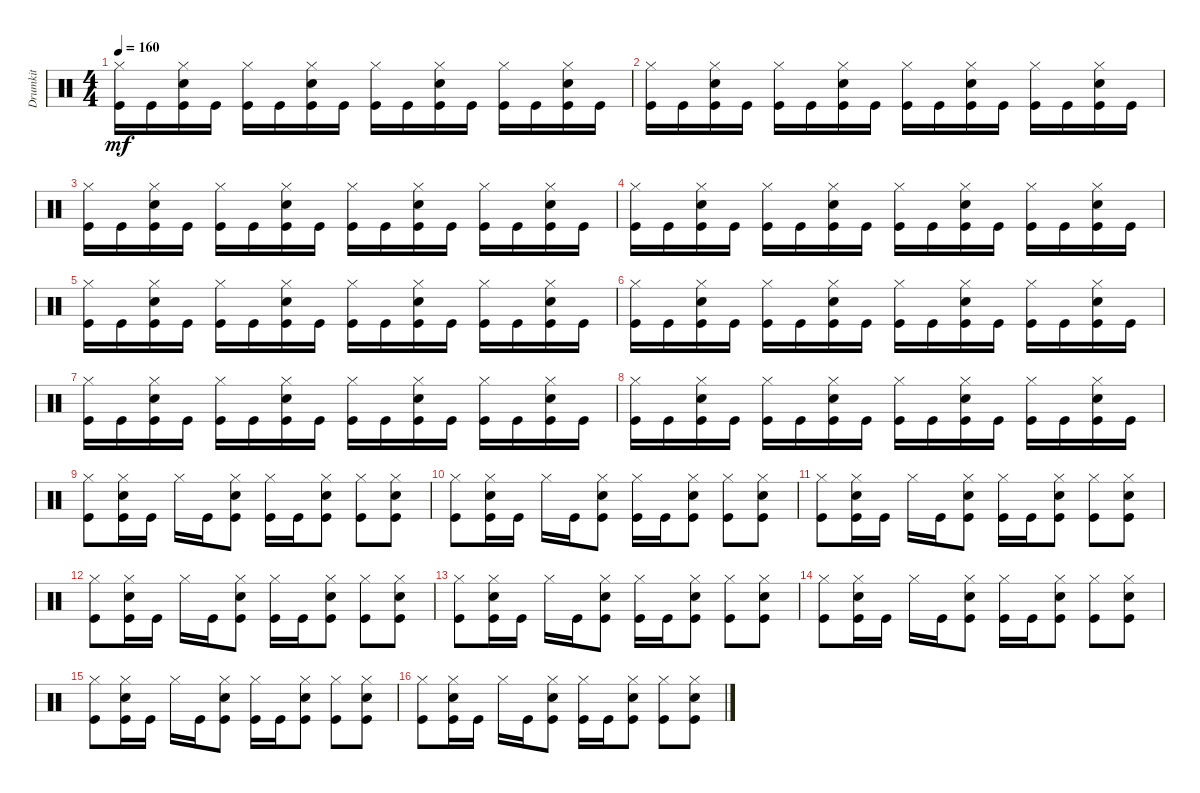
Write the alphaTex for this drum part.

\track ("Drumkit" "Drumkit") {instrument percussion}
\staff {score}
\articulation defaults
\ts (4 4)
\tempo 160
\clef neutral
\ks c
("Kick (hit)" "Hi-Hat (closed)").16{dy mf} "Kick (hit)".16 ("Kick (hit)" "Snare (hit) 2" "Hi-Hat (closed)").16 "Kick (hit)".16 ("Kick (hit)" "Hi-Hat (closed)").16 "Kick (hit)".16 ("Kick (hit)" "Snare (hit) 2" "Hi-Hat (closed)").16 "Kick (hit)".16 ("Kick (hit)" "Hi-Hat (closed)").16 "Kick (hit)".16 ("Kick (hit)" "Snare (hit) 2" "Hi-Hat (closed)").16 "Kick (hit)".16 ("Kick (hit)" "Hi-Hat (closed)").16 "Kick (hit)".16 ("Kick (hit)" "Snare (hit) 2" "Hi-Hat (closed)").16 "Kick (hit)".16 |
("Kick (hit)" "Hi-Hat (closed)").16 "Kick (hit)".16 ("Kick (hit)" "Snare (hit) 2" "Hi-Hat (closed)").16 "Kick (hit)".16 ("Kick (hit)" "Hi-Hat (closed)").16 "Kick (hit)".16 ("Kick (hit)" "Snare (hit) 2" "Hi-Hat (closed)").16 "Kick (hit)".16 ("Kick (hit)" "Hi-Hat (closed)").16 "Kick (hit)".16 ("Kick (hit)" "Snare (hit) 2" "Hi-Hat (closed)").16 "Kick (hit)".16 ("Kick (hit)" "Hi-Hat (closed)").16 "Kick (hit)".16 ("Kick (hit)" "Snare (hit) 2" "Hi-Hat (closed)").16 "Kick (hit)".16 |
("Kick (hit)" "Hi-Hat (closed)").16 "Kick (hit)".16 ("Kick (hit)" "Snare (hit) 2" "Hi-Hat (closed)").16 "Kick (hit)".16 ("Kick (hit)" "Hi-Hat (closed)").16 "Kick (hit)".16 ("Kick (hit)" "Snare (hit) 2" "Hi-Hat (closed)").16 "Kick (hit)".16 ("Kick (hit)" "Hi-Hat (closed)").16 "Kick (hit)".16 ("Kick (hit)" "Snare (hit) 2" "Hi-Hat (closed)").16 "Kick (hit)".16 ("Kick (hit)" "Hi-Hat (closed)").16 "Kick (hit)".16 ("Kick (hit)" "Snare (hit) 2" "Hi-Hat (closed)").16 "Kick (hit)".16 |
("Kick (hit)" "Hi-Hat (closed)").16 "Kick (hit)".16 ("Kick (hit)" "Snare (hit) 2" "Hi-Hat (closed)").16 "Kick (hit)".16 ("Kick (hit)" "Hi-Hat (closed)").16 "Kick (hit)".16 ("Kick (hit)" "Snare (hit) 2" "Hi-Hat (closed)").16 "Kick (hit)".16 ("Kick (hit)" "Hi-Hat (closed)").16 "Kick (hit)".16 ("Kick (hit)" "Snare (hit) 2" "Hi-Hat (closed)").16 "Kick (hit)".16 ("Kick (hit)" "Hi-Hat (closed)").16 "Kick (hit)".16 ("Kick (hit)" "Snare (hit) 2" "Hi-Hat (closed)").16 "Kick (hit)".16 |
("Kick (hit)" "Hi-Hat (closed)").16 "Kick (hit)".16 ("Kick (hit)" "Snare (hit) 2" "Hi-Hat (closed)").16 "Kick (hit)".16 ("Kick (hit)" "Hi-Hat (closed)").16 "Kick (hit)".16 ("Kick (hit)" "Snare (hit) 2" "Hi-Hat (closed)").16 "Kick (hit)".16 ("Kick (hit)" "Hi-Hat (closed)").16 "Kick (hit)".16 ("Kick (hit)" "Snare (hit) 2" "Hi-Hat (closed)").16 "Kick (hit)".16 ("Kick (hit)" "Hi-Hat (closed)").16 "Kick (hit)".16 ("Kick (hit)" "Snare (hit) 2" "Hi-Hat (closed)").16 "Kick (hit)".16 |
("Kick (hit)" "Hi-Hat (closed)").16 "Kick (hit)".16 ("Kick (hit)" "Snare (hit) 2" "Hi-Hat (closed)").16 "Kick (hit)".16 ("Kick (hit)" "Hi-Hat (closed)").16 "Kick (hit)".16 ("Kick (hit)" "Snare (hit) 2" "Hi-Hat (closed)").16 "Kick (hit)".16 ("Kick (hit)" "Hi-Hat (closed)").16 "Kick (hit)".16 ("Kick (hit)" "Snare (hit) 2" "Hi-Hat (closed)").16 "Kick (hit)".16 ("Kick (hit)" "Hi-Hat (closed)").16 "Kick (hit)".16 ("Kick (hit)" "Snare (hit) 2" "Hi-Hat (closed)").16 "Kick (hit)".16 |
("Kick (hit)" "Hi-Hat (closed)").16 "Kick (hit)".16 ("Kick (hit)" "Snare (hit) 2" "Hi-Hat (closed)").16 "Kick (hit)".16 ("Kick (hit)" "Hi-Hat (closed)").16 "Kick (hit)".16 ("Kick (hit)" "Snare (hit) 2" "Hi-Hat (closed)").16 "Kick (hit)".16 ("Kick (hit)" "Hi-Hat (closed)").16 "Kick (hit)".16 ("Kick (hit)" "Snare (hit) 2" "Hi-Hat (closed)").16 "Kick (hit)".16 ("Kick (hit)" "Hi-Hat (closed)").16 "Kick (hit)".16 ("Kick (hit)" "Snare (hit) 2" "Hi-Hat (closed)").16 "Kick (hit)".16 |
("Kick (hit)" "Hi-Hat (closed)").16 "Kick (hit)".16 ("Kick (hit)" "Snare (hit) 2" "Hi-Hat (closed)").16 "Kick (hit)".16 ("Kick (hit)" "Hi-Hat (closed)").16 "Kick (hit)".16 ("Kick (hit)" "Snare (hit) 2" "Hi-Hat (closed)").16 "Kick (hit)".16 ("Kick (hit)" "Hi-Hat (closed)").16 "Kick (hit)".16 ("Kick (hit)" "Snare (hit) 2" "Hi-Hat (closed)").16 "Kick (hit)".16 ("Kick (hit)" "Hi-Hat (closed)").16 "Kick (hit)".16 ("Kick (hit)" "Snare (hit) 2" "Hi-Hat (closed)").16 "Kick (hit)".16 |
("Kick (hit)" "Hi-Hat (closed)").8 ("Kick (hit)" "Snare (hit) 2" "Hi-Hat (closed)").16 "Kick (hit)".16 "Hi-Hat (closed)".16 "Kick (hit)".16 ("Kick (hit)" "Snare (hit) 2" "Hi-Hat (closed)").8 ("Kick (hit)" "Hi-Hat (closed)").16 "Kick (hit)".16 ("Kick (hit)" "Snare (hit) 2" "Hi-Hat (closed)").8 ("Kick (hit)" "Hi-Hat (closed)").8 ("Kick (hit)" "Snare (hit) 2" "Hi-Hat (closed)").8 |
("Kick (hit)" "Hi-Hat (closed)").8 ("Kick (hit)" "Snare (hit) 2" "Hi-Hat (closed)").16 "Kick (hit)".16 "Hi-Hat (closed)".16 "Kick (hit)".16 ("Kick (hit)" "Snare (hit) 2" "Hi-Hat (closed)").8 ("Kick (hit)" "Hi-Hat (closed)").16 "Kick (hit)".16 ("Kick (hit)" "Snare (hit) 2" "Hi-Hat (closed)").8 ("Kick (hit)" "Hi-Hat (closed)").8 ("Kick (hit)" "Snare (hit) 2" "Hi-Hat (closed)").8 |
("Kick (hit)" "Hi-Hat (closed)").8 ("Kick (hit)" "Snare (hit) 2" "Hi-Hat (closed)").16 "Kick (hit)".16 "Hi-Hat (closed)".16 "Kick (hit)".16 ("Kick (hit)" "Snare (hit) 2" "Hi-Hat (closed)").8 ("Kick (hit)" "Hi-Hat (closed)").16 "Kick (hit)".16 ("Kick (hit)" "Snare (hit) 2" "Hi-Hat (closed)").8 ("Kick (hit)" "Hi-Hat (closed)").8 ("Kick (hit)" "Snare (hit) 2" "Hi-Hat (closed)").8 |
("Kick (hit)" "Hi-Hat (closed)").8 ("Kick (hit)" "Snare (hit) 2" "Hi-Hat (closed)").16 "Kick (hit)".16 "Hi-Hat (closed)".16 "Kick (hit)".16 ("Kick (hit)" "Snare (hit) 2" "Hi-Hat (closed)").8 ("Kick (hit)" "Hi-Hat (closed)").16 "Kick (hit)".16 ("Kick (hit)" "Snare (hit) 2" "Hi-Hat (closed)").8 ("Kick (hit)" "Hi-Hat (closed)").8 ("Kick (hit)" "Snare (hit) 2" "Hi-Hat (closed)").8 |
("Kick (hit)" "Hi-Hat (closed)").8 ("Kick (hit)" "Snare (hit) 2" "Hi-Hat (closed)").16 "Kick (hit)".16 "Hi-Hat (closed)".16 "Kick (hit)".16 ("Kick (hit)" "Snare (hit) 2" "Hi-Hat (closed)").8 ("Kick (hit)" "Hi-Hat (closed)").16 "Kick (hit)".16 ("Kick (hit)" "Snare (hit) 2" "Hi-Hat (closed)").8 ("Kick (hit)" "Hi-Hat (closed)").8 ("Kick (hit)" "Snare (hit) 2" "Hi-Hat (closed)").8 |
("Kick (hit)" "Hi-Hat (closed)").8 ("Kick (hit)" "Snare (hit) 2" "Hi-Hat (closed)").16 "Kick (hit)".16 "Hi-Hat (closed)".16 "Kick (hit)".16 ("Kick (hit)" "Snare (hit) 2" "Hi-Hat (closed)").8 ("Kick (hit)" "Hi-Hat (closed)").16 "Kick (hit)".16 ("Kick (hit)" "Snare (hit) 2" "Hi-Hat (closed)").8 ("Kick (hit)" "Hi-Hat (closed)").8 ("Kick (hit)" "Snare (hit) 2" "Hi-Hat (closed)").8 |
("Kick (hit)" "Hi-Hat (closed)").8 ("Kick (hit)" "Snare (hit) 2" "Hi-Hat (closed)").16 "Kick (hit)".16 "Hi-Hat (closed)".16 "Kick (hit)".16 ("Kick (hit)" "Snare (hit) 2" "Hi-Hat (closed)").8 ("Kick (hit)" "Hi-Hat (closed)").16 "Kick (hit)".16 ("Kick (hit)" "Snare (hit) 2" "Hi-Hat (closed)").8 ("Kick (hit)" "Hi-Hat (closed)").8 ("Kick (hit)" "Snare (hit) 2" "Hi-Hat (closed)").8 |
("Kick (hit)" "Hi-Hat (closed)").8 ("Kick (hit)" "Snare (hit) 2" "Hi-Hat (closed)").16 "Kick (hit)".16 "Hi-Hat (closed)".16 "Kick (hit)".16 ("Kick (hit)" "Snare (hit) 2" "Hi-Hat (closed)").8 ("Kick (hit)" "Hi-Hat (closed)").16 "Kick (hit)".16 ("Kick (hit)" "Snare (hit) 2" "Hi-Hat (closed)").8 ("Kick (hit)" "Hi-Hat (closed)").8 ("Kick (hit)" "Snare (hit) 2" "Hi-Hat (closed)").8
